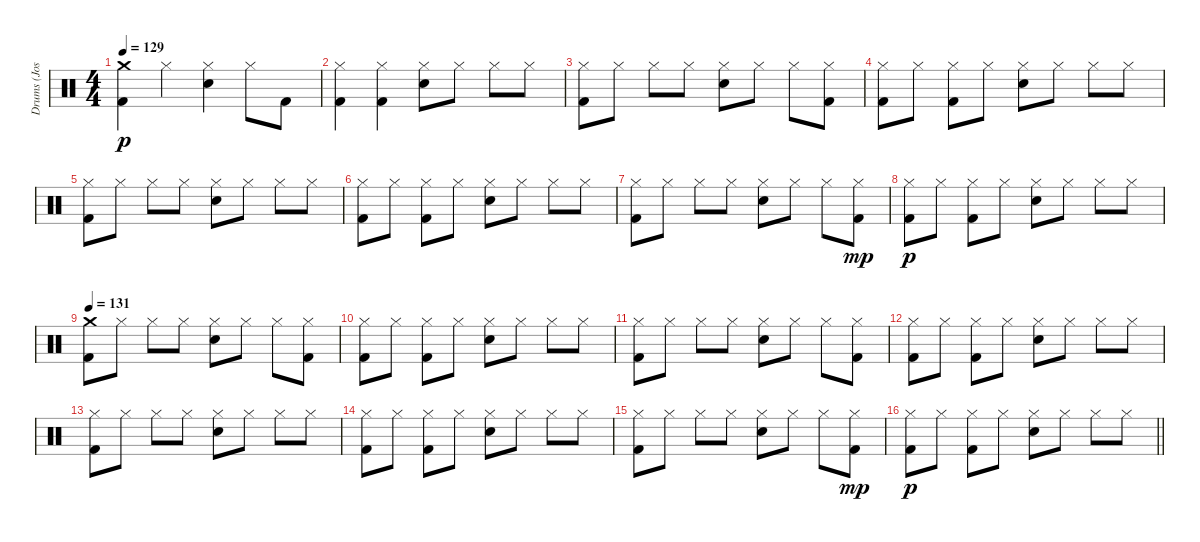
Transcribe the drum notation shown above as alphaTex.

\track ("Drums (Josh Freese)" "Drums (Jos") {instrument percussion}
\staff {score}
\articulation defaults
\ts (4 4)
\tempo 129
\clef neutral
\ks c
("Crash medium (hit)" "Kick (hit) 2").4{dy p} "Hi-Hat (closed)".4 ("Hi-Hat (closed)" "Electric Snare (hit)").4 "Hi-Hat (closed)".8 "Kick (hit) 2".8 |
("Hi-Hat (closed)" "Kick (hit) 2").4 ("Hi-Hat (closed)" "Kick (hit) 2").4 ("Hi-Hat (closed)" "Electric Snare (hit)").8 "Hi-Hat (closed)".8 "Hi-Hat (closed)".8 "Hi-Hat (closed)".8 |
("Hi-Hat (closed)" "Kick (hit) 2").8 "Hi-Hat (closed)".8 "Hi-Hat (closed)".8 "Hi-Hat (closed)".8 ("Hi-Hat (closed)" "Electric Snare (hit)").8 "Hi-Hat (closed)".8 "Hi-Hat (closed)".8 ("Hi-Hat (closed)" "Kick (hit) 2").8 |
("Hi-Hat (closed)" "Kick (hit) 2").8 "Hi-Hat (closed)".8 ("Hi-Hat (closed)" "Kick (hit) 2").8 "Hi-Hat (closed)".8 ("Hi-Hat (closed)" "Electric Snare (hit)").8 "Hi-Hat (closed)".8 "Hi-Hat (closed)".8 "Hi-Hat (closed)".8 |
("Hi-Hat (closed)" "Kick (hit) 2").8 "Hi-Hat (closed)".8 "Hi-Hat (closed)".8 "Hi-Hat (closed)".8 ("Hi-Hat (closed)" "Electric Snare (hit)").8 "Hi-Hat (closed)".8 "Hi-Hat (closed)".8 "Hi-Hat (closed)".8 |
("Hi-Hat (closed)" "Kick (hit) 2").8 "Hi-Hat (closed)".8 ("Hi-Hat (closed)" "Kick (hit) 2").8 "Hi-Hat (closed)".8 ("Hi-Hat (closed)" "Electric Snare (hit)").8 "Hi-Hat (closed)".8 "Hi-Hat (closed)".8 "Hi-Hat (closed)".8 |
("Hi-Hat (closed)" "Kick (hit) 2").8 "Hi-Hat (closed)".8 "Hi-Hat (closed)".8 "Hi-Hat (closed)".8 ("Hi-Hat (closed)" "Electric Snare (hit)").8 "Hi-Hat (closed)".8 "Hi-Hat (closed)".8 ("Hi-Hat (closed)" "Kick (hit) 2").8{dy mp} |
("Hi-Hat (closed)" "Kick (hit) 2").8{dy p} "Hi-Hat (closed)".8 ("Hi-Hat (closed)" "Kick (hit) 2").8 "Hi-Hat (closed)".8 ("Hi-Hat (closed)" "Electric Snare (hit)").8 "Hi-Hat (closed)".8 "Hi-Hat (closed)".8 "Hi-Hat (closed)".8 |
\tempo 131
("Crash medium (hit)" "Kick (hit) 2").8 "Hi-Hat (closed)".8 "Hi-Hat (closed)".8 "Hi-Hat (closed)".8 ("Hi-Hat (closed)" "Electric Snare (hit)").8 "Hi-Hat (closed)".8 "Hi-Hat (closed)".8 ("Hi-Hat (closed)" "Kick (hit) 2").8 |
("Hi-Hat (closed)" "Kick (hit) 2").8 "Hi-Hat (closed)".8 ("Hi-Hat (closed)" "Kick (hit) 2").8 "Hi-Hat (closed)".8 ("Hi-Hat (closed)" "Electric Snare (hit)").8 "Hi-Hat (closed)".8 "Hi-Hat (closed)".8 "Hi-Hat (closed)".8 |
("Hi-Hat (closed)" "Kick (hit) 2").8 "Hi-Hat (closed)".8 "Hi-Hat (closed)".8 "Hi-Hat (closed)".8 ("Hi-Hat (closed)" "Electric Snare (hit)").8 "Hi-Hat (closed)".8 "Hi-Hat (closed)".8 ("Hi-Hat (closed)" "Kick (hit) 2").8 |
("Hi-Hat (closed)" "Kick (hit) 2").8 "Hi-Hat (closed)".8 ("Hi-Hat (closed)" "Kick (hit) 2").8 "Hi-Hat (closed)".8 ("Hi-Hat (closed)" "Electric Snare (hit)").8 "Hi-Hat (closed)".8 "Hi-Hat (closed)".8 "Hi-Hat (closed)".8 |
("Hi-Hat (closed)" "Kick (hit) 2").8 "Hi-Hat (closed)".8 "Hi-Hat (closed)".8 "Hi-Hat (closed)".8 ("Hi-Hat (closed)" "Electric Snare (hit)").8 "Hi-Hat (closed)".8 "Hi-Hat (closed)".8 "Hi-Hat (closed)".8 |
("Hi-Hat (closed)" "Kick (hit) 2").8 "Hi-Hat (closed)".8 ("Hi-Hat (closed)" "Kick (hit) 2").8 "Hi-Hat (closed)".8 ("Hi-Hat (closed)" "Electric Snare (hit)").8 "Hi-Hat (closed)".8 "Hi-Hat (closed)".8 "Hi-Hat (closed)".8 |
("Hi-Hat (closed)" "Kick (hit) 2").8 "Hi-Hat (closed)".8 "Hi-Hat (closed)".8 "Hi-Hat (closed)".8 ("Hi-Hat (closed)" "Electric Snare (hit)").8 "Hi-Hat (closed)".8 "Hi-Hat (closed)".8 ("Hi-Hat (closed)" "Kick (hit) 2").8{dy mp} |
\barLineRight lightlight
("Hi-Hat (closed)" "Kick (hit) 2").8{dy p} "Hi-Hat (closed)".8 ("Hi-Hat (closed)" "Kick (hit) 2").8 "Hi-Hat (closed)".8 ("Hi-Hat (closed)" "Electric Snare (hit)").8 "Hi-Hat (closed)".8 "Hi-Hat (closed)".8 "Hi-Hat (closed)".8
